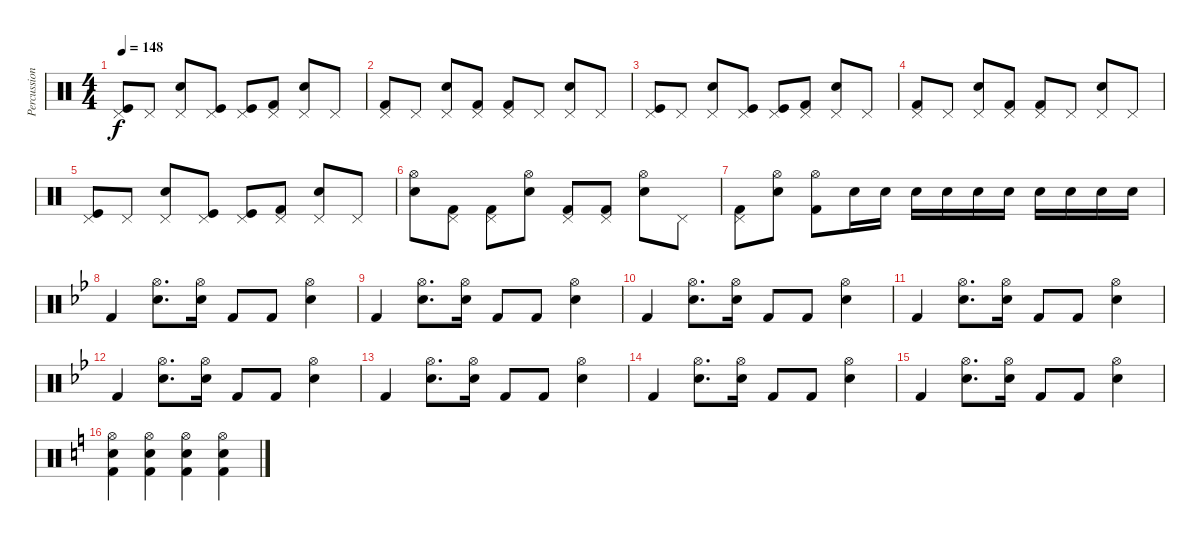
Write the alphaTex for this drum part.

\track ("Percussion" "Percussion") {instrument percussion}
\staff {score}
\articulation defaults
\ts (4 4)
\tempo 148
\clef neutral
\ks c
("Pedal Hi-Hat (hit)" "Kick (hit)").8{dy f} "Pedal Hi-Hat (hit)".8 ("Pedal Hi-Hat (hit)" "Electric Snare (hit)").8 ("Pedal Hi-Hat (hit)" "Kick (hit)").8 ("Pedal Hi-Hat (hit)" "Kick (hit)").8 ("Pedal Hi-Hat (hit)" "Kick (hit) 2").8 ("Pedal Hi-Hat (hit)" "Electric Snare (hit)").8 "Pedal Hi-Hat (hit)".8 |
("Pedal Hi-Hat (hit)" "Kick (hit) 2").8 "Pedal Hi-Hat (hit)".8 ("Pedal Hi-Hat (hit)" "Electric Snare (hit)").8 ("Pedal Hi-Hat (hit)" "Kick (hit) 2").8 ("Pedal Hi-Hat (hit)" "Kick (hit) 2").8 "Pedal Hi-Hat (hit)".8 ("Pedal Hi-Hat (hit)" "Electric Snare (hit)").8 "Pedal Hi-Hat (hit)".8 |
("Pedal Hi-Hat (hit)" "Kick (hit)").8 "Pedal Hi-Hat (hit)".8 ("Pedal Hi-Hat (hit)" "Electric Snare (hit)").8 ("Pedal Hi-Hat (hit)" "Kick (hit)").8 ("Pedal Hi-Hat (hit)" "Kick (hit)").8 ("Pedal Hi-Hat (hit)" "Kick (hit) 2").8 ("Pedal Hi-Hat (hit)" "Electric Snare (hit)").8 "Pedal Hi-Hat (hit)".8 |
("Pedal Hi-Hat (hit)" "Kick (hit) 2").8 "Pedal Hi-Hat (hit)".8 ("Pedal Hi-Hat (hit)" "Electric Snare (hit)").8 ("Pedal Hi-Hat (hit)" "Kick (hit) 2").8 ("Pedal Hi-Hat (hit)" "Kick (hit) 2").8 "Pedal Hi-Hat (hit)".8 ("Pedal Hi-Hat (hit)" "Electric Snare (hit)").8 "Pedal Hi-Hat (hit)".8 |
("Pedal Hi-Hat (hit)" "Kick (hit)").8 "Pedal Hi-Hat (hit)".8 ("Pedal Hi-Hat (hit)" "Electric Snare (hit)").8 ("Pedal Hi-Hat (hit)" "Kick (hit)").8 ("Pedal Hi-Hat (hit)" "Kick (hit)").8 ("Pedal Hi-Hat (hit)" "Kick (hit) 2").8 ("Pedal Hi-Hat (hit)" "Electric Snare (hit)").8 "Pedal Hi-Hat (hit)".8 |
("Hi-Hat (open)" "Electric Snare (hit)").8 ("Pedal Hi-Hat (hit)" "Kick (hit) 2").8 ("Pedal Hi-Hat (hit)" "Kick (hit) 2").8 ("Hi-Hat (open)" "Electric Snare (hit)").8 ("Pedal Hi-Hat (hit)" "Kick (hit) 2").8 ("Pedal Hi-Hat (hit)" "Kick (hit) 2").8 ("Hi-Hat (open)" "Electric Snare (hit)").8 "Pedal Hi-Hat (hit)".8 |
("Pedal Hi-Hat (hit)" "Kick (hit) 2").8 ("Hi-Hat (open)" "Electric Snare (hit)").8 ("Hi-Hat (open)" "Kick (hit) 2").8 "Electric Snare (hit)".16 "Electric Snare (hit)".16 "Electric Snare (hit)".16 "Electric Snare (hit)".16 "Electric Snare (hit)".16 "Electric Snare (hit)".16 "Electric Snare (hit)".16 "Electric Snare (hit)".16 "Electric Snare (hit)".16 "Electric Snare (hit)".16 |
\ks bb "Kick (hit) 2".4
("Hi-Hat (open)" "Electric Snare (hit)").8{d} ("Hi-Hat (open)" "Electric Snare (hit)").16 "Kick (hit) 2".8 "Kick (hit) 2".8 ("Hi-Hat (open)" "Electric Snare (hit)").4 |
"Kick (hit) 2".4 ("Hi-Hat (open)" "Electric Snare (hit)").8{d} ("Hi-Hat (open)" "Electric Snare (hit)").16 "Kick (hit) 2".8 "Kick (hit) 2".8 ("Hi-Hat (open)" "Electric Snare (hit)").4 |
"Kick (hit) 2".4 ("Hi-Hat (open)" "Electric Snare (hit)").8{d} ("Hi-Hat (open)" "Electric Snare (hit)").16 "Kick (hit) 2".8 "Kick (hit) 2".8 ("Hi-Hat (open)" "Electric Snare (hit)").4 |
"Kick (hit) 2".4 ("Hi-Hat (open)" "Electric Snare (hit)").8{d} ("Hi-Hat (open)" "Electric Snare (hit)").16 "Kick (hit) 2".8 "Kick (hit) 2".8 ("Hi-Hat (open)" "Electric Snare (hit)").4 |
"Kick (hit) 2".4 ("Hi-Hat (open)" "Electric Snare (hit)").8{d} ("Hi-Hat (open)" "Electric Snare (hit)").16 "Kick (hit) 2".8 "Kick (hit) 2".8 ("Hi-Hat (open)" "Electric Snare (hit)").4 |
"Kick (hit) 2".4 ("Hi-Hat (open)" "Electric Snare (hit)").8{d} ("Hi-Hat (open)" "Electric Snare (hit)").16 "Kick (hit) 2".8 "Kick (hit) 2".8 ("Hi-Hat (open)" "Electric Snare (hit)").4 |
"Kick (hit) 2".4 ("Hi-Hat (open)" "Electric Snare (hit)").8{d} ("Hi-Hat (open)" "Electric Snare (hit)").16 "Kick (hit) 2".8 "Kick (hit) 2".8 ("Hi-Hat (open)" "Electric Snare (hit)").4 |
"Kick (hit) 2".4 ("Hi-Hat (open)" "Electric Snare (hit)").8{d} ("Hi-Hat (open)" "Electric Snare (hit)").16 "Kick (hit) 2".8 "Kick (hit) 2".8 ("Hi-Hat (open)" "Electric Snare (hit)").4 |
\ks c
("Hi-Hat (open)" "Electric Snare (hit)" "Kick (hit) 2").4 ("Hi-Hat (open)" "Electric Snare (hit)" "Kick (hit) 2").4 ("Hi-Hat (open)" "Electric Snare (hit)" "Kick (hit) 2").4 ("Hi-Hat (open)" "Electric Snare (hit)" "Kick (hit) 2").4
